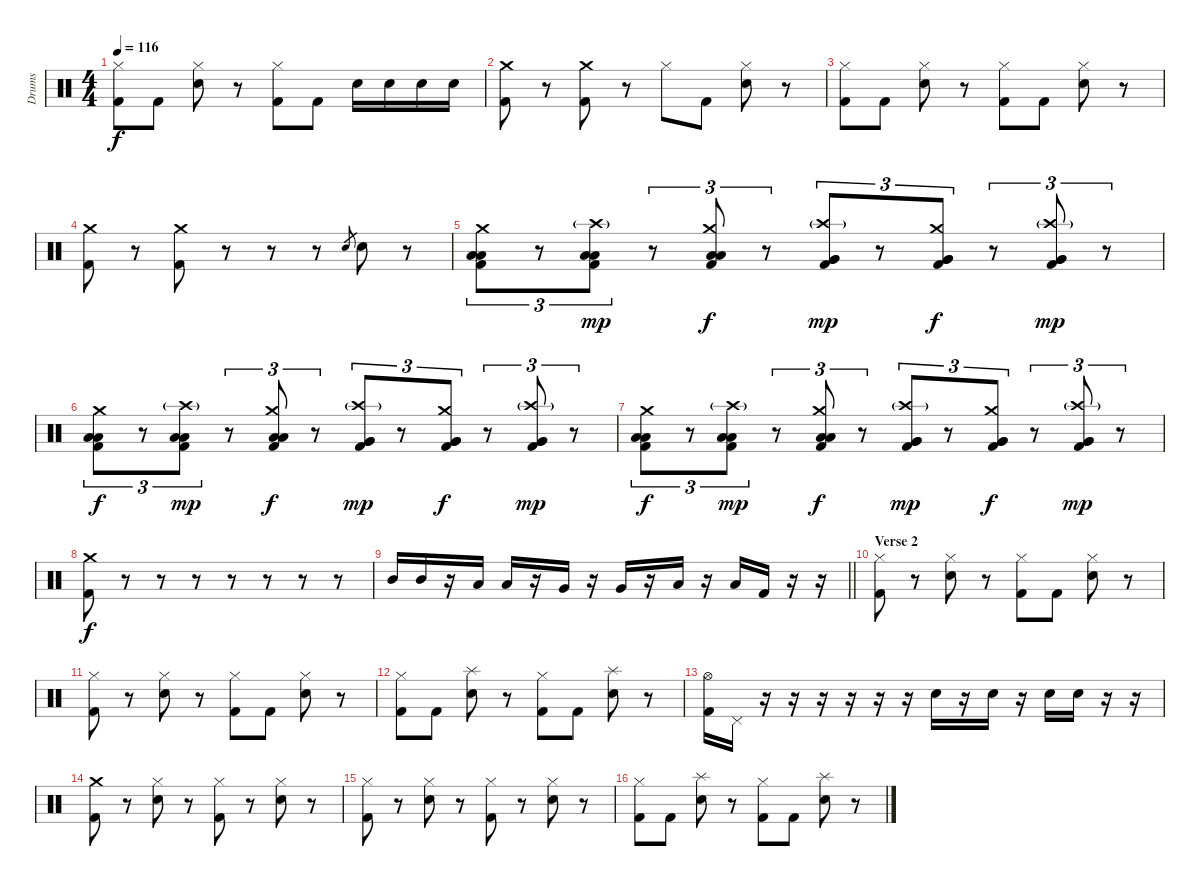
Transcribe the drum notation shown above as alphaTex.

\track ("Drums" "Drums") {instrument percussion}
\staff {score}
\articulation defaults
\ts (4 4)
\tempo 116
\clef neutral
\ks c
("Hi-Hat (closed)" "Kick (hit) 2").8{dy f} "Kick (hit) 2".8 ("Hi-Hat (closed)" "Snare (hit) 2").8 r.8 ("Hi-Hat (closed)" "Kick (hit) 2").8 "Kick (hit) 2".8 "Snare (hit) 2".16 "Snare (hit) 2".16 "Snare (hit) 2".16 "Snare (hit) 2".16 |
("Crash medium (hit)" "Kick (hit) 2").8 r.8 ("Crash medium (hit)" "Kick (hit) 2").8 r.8 "Hi-Hat (closed)".8 "Kick (hit) 2".8 ("Hi-Hat (closed)" "Snare (hit) 2").8 r.8 |
("Hi-Hat (closed)" "Kick (hit) 2").8 "Kick (hit) 2".8 ("Hi-Hat (closed)" "Snare (hit) 2").8 r.8 ("Hi-Hat (closed)" "Kick (hit) 2").8 "Kick (hit) 2".8 ("Hi-Hat (closed)" "Snare (hit) 2").8 r.8 |
("Crash medium (hit)" "Kick (hit) 2").8 r.8 ("Crash medium (hit)" "Kick (hit) 2").8 r.8 r.8 r.8 "Snare (hit) 2".8{gr} "Snare (hit) 2".8 r.8 |
("Crash medium (hit)" "Low Tom (hit)" "Low Tom (hit)" "Kick (hit) 2").8{tu (3 2)} r.8{tu (3 2)} ("Crash high (hit)"{g} "Low Tom (hit)" "Low Tom (hit)" "Kick (hit) 2").8{tu (3 2) dy mp} r.8{tu (3 2)} ("Crash medium (hit)" "Low Tom (hit)" "Low Tom (hit)" "Kick (hit) 2").8{tu (3 2) dy f} r.8{tu (3 2)} ("Crash high (hit)"{g} "Very Low Tom (hit)" "Very Low Tom (hit)" "Kick (hit) 2").8{tu (3 2) dy mp} r.8{tu (3 2)} ("Crash medium (hit)" "Very Low Tom (hit)" "Very Low Tom (hit)" "Kick (hit) 2").8{tu (3 2) dy f} r.8{tu (3 2)} ("Crash high (hit)"{g} "Very Low Tom (hit)" "Very Low Tom (hit)" "Kick (hit) 2").8{tu (3 2) dy mp} r.8{tu (3 2)} |
("Crash medium (hit)" "Low Tom (hit)" "Low Tom (hit)" "Kick (hit) 2").8{tu (3 2) dy f} r.8{tu (3 2)} ("Crash high (hit)"{g} "Low Tom (hit)" "Low Tom (hit)" "Kick (hit) 2").8{tu (3 2) dy mp} r.8{tu (3 2)} ("Crash medium (hit)" "Low Tom (hit)" "Low Tom (hit)" "Kick (hit) 2").8{tu (3 2) dy f} r.8{tu (3 2)} ("Crash high (hit)"{g} "Very Low Tom (hit)" "Very Low Tom (hit)" "Kick (hit) 2").8{tu (3 2) dy mp} r.8{tu (3 2)} ("Crash medium (hit)" "Very Low Tom (hit)" "Very Low Tom (hit)" "Kick (hit) 2").8{tu (3 2) dy f} r.8{tu (3 2)} ("Crash high (hit)"{g} "Very Low Tom (hit)" "Very Low Tom (hit)" "Kick (hit) 2").8{tu (3 2) dy mp} r.8{tu (3 2)} |
("Crash medium (hit)" "Low Tom (hit)" "Low Tom (hit)" "Kick (hit) 2").8{tu (3 2) dy f} r.8{tu (3 2)} ("Crash high (hit)"{g} "Low Tom (hit)" "Low Tom (hit)" "Kick (hit) 2").8{tu (3 2) dy mp} r.8{tu (3 2)} ("Crash medium (hit)" "Low Tom (hit)" "Low Tom (hit)" "Kick (hit) 2").8{tu (3 2) dy f} r.8{tu (3 2)} ("Crash high (hit)"{g} "Very Low Tom (hit)" "Very Low Tom (hit)" "Kick (hit) 2").8{tu (3 2) dy mp} r.8{tu (3 2)} ("Crash medium (hit)" "Very Low Tom (hit)" "Very Low Tom (hit)" "Kick (hit) 2").8{tu (3 2) dy f} r.8{tu (3 2)} ("Crash high (hit)"{g} "Very Low Tom (hit)" "Very Low Tom (hit)" "Kick (hit) 2").8{tu (3 2) dy mp} r.8{tu (3 2)} |
("Crash medium (hit)" "Kick (hit) 2").8{dy f} r.8 r.8 r.8 r.8 r.8 r.8 r.8 |
\barLineRight lightlight "Mid Tom (hit)".16 "Mid Tom (hit)".16
r.16 "Low Tom (hit)".16 "Low Tom (hit)".16 r.16 "Very Low Tom (hit)".16 r.16 "Very Low Tom (hit)".16 r.16 "Low Floor Tom (hit)".16 r.16 "Low Floor Tom (hit)".16 "Kick (hit) 2".16 r.16 r.16 |
\section ("" "Verse 2")
("Hi-Hat (closed)" "Kick (hit) 2").8 r.8 ("Hi-Hat (closed)" "Snare (hit) 2").8 r.8 ("Hi-Hat (closed)" "Kick (hit) 2").8 "Kick (hit) 2".8 ("Hi-Hat (closed)" "Snare (hit) 2").8 r.8 |
("Hi-Hat (closed)" "Kick (hit) 2").8 r.8 ("Hi-Hat (closed)" "Snare (hit) 2").8 r.8 ("Hi-Hat (closed)" "Kick (hit) 2").8 "Kick (hit) 2".8 ("Hi-Hat (closed)" "Snare (hit) 2").8 r.8 |
("Hi-Hat (closed)" "Kick (hit) 2").8 "Kick (hit) 2".8 ("Splash (hit)" "Snare (hit) 2").8 r.8 ("Hi-Hat (closed)" "Kick (hit) 2").8 "Kick (hit) 2".8 ("Splash (hit)" "Snare (hit) 2").8 r.8 |
("Hi-Hat (open)" "Kick (hit) 2").16 "Pedal Hi-Hat (hit)".16 r.16 r.16 r.16 r.16 r.16 r.16 "Snare (hit) 2".16 r.16 "Snare (hit) 2".16 r.16 "Snare (hit) 2".16 "Snare (hit) 2".16 r.16 r.16 |
("Crash medium (hit)" "Kick (hit) 2").8 r.8 ("Hi-Hat (closed)" "Snare (hit) 2").8 r.8 ("Hi-Hat (closed)" "Kick (hit) 2").8 r.8 ("Hi-Hat (closed)" "Snare (hit) 2").8 r.8 |
("Hi-Hat (closed)" "Kick (hit) 2").8 r.8 ("Hi-Hat (closed)" "Snare (hit) 2").8 r.8 ("Hi-Hat (closed)" "Kick (hit) 2").8 r.8 ("Hi-Hat (closed)" "Snare (hit) 2").8 r.8 |
("Hi-Hat (closed)" "Kick (hit) 2").8 "Kick (hit) 2".8 ("Splash (hit)" "Snare (hit) 2").8 r.8 ("Hi-Hat (closed)" "Kick (hit) 2").8 "Kick (hit) 2".8 ("Splash (hit)" "Snare (hit) 2").8 r.8
